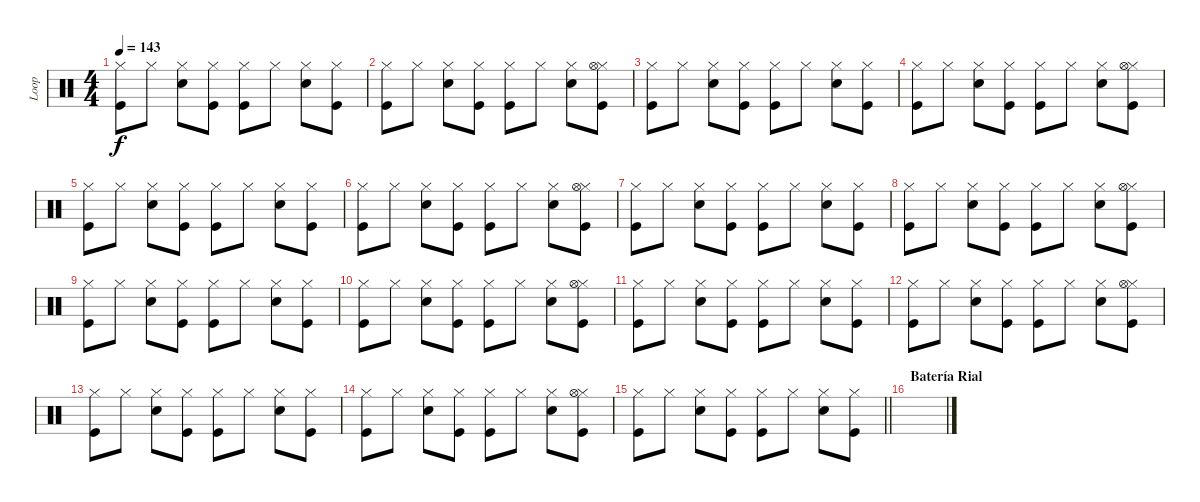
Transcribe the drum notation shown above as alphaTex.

\track ("Loop" "Loop") {instrument percussion}
\staff {score}
\articulation defaults
\ts (4 4)
\tempo 143
\clef neutral
\ks c
("Kick (hit)" "Hi-Hat (closed)").8{dy f} "Hi-Hat (closed)".8 ("Snare (hit) 2" "Hi-Hat (closed)").8 ("Hi-Hat (closed)" "Kick (hit)").8 ("Hi-Hat (closed)" "Kick (hit)").8 "Hi-Hat (closed)".8 ("Hi-Hat (closed)" "Snare (hit) 2").8 ("Hi-Hat (closed)" "Kick (hit)").8 |
("Kick (hit)" "Hi-Hat (closed)").8 "Hi-Hat (closed)".8 ("Snare (hit) 2" "Hi-Hat (closed)").8 ("Hi-Hat (closed)" "Kick (hit)").8 ("Hi-Hat (closed)" "Kick (hit)").8 "Hi-Hat (closed)".8 ("Hi-Hat (closed)" "Snare (hit) 2").8 ("Hi-Hat (closed)" "Kick (hit)" "Hi-Hat (open)").8 |
("Kick (hit)" "Hi-Hat (closed)").8 "Hi-Hat (closed)".8 ("Snare (hit) 2" "Hi-Hat (closed)").8 ("Hi-Hat (closed)" "Kick (hit)").8 ("Hi-Hat (closed)" "Kick (hit)").8 "Hi-Hat (closed)".8 ("Hi-Hat (closed)" "Snare (hit) 2").8 ("Hi-Hat (closed)" "Kick (hit)").8 |
("Kick (hit)" "Hi-Hat (closed)").8 "Hi-Hat (closed)".8 ("Snare (hit) 2" "Hi-Hat (closed)").8 ("Hi-Hat (closed)" "Kick (hit)").8 ("Hi-Hat (closed)" "Kick (hit)").8 "Hi-Hat (closed)".8 ("Hi-Hat (closed)" "Snare (hit) 2").8 ("Hi-Hat (closed)" "Kick (hit)" "Hi-Hat (open)").8 |
("Kick (hit)" "Hi-Hat (closed)").8 "Hi-Hat (closed)".8 ("Snare (hit) 2" "Hi-Hat (closed)").8 ("Hi-Hat (closed)" "Kick (hit)").8 ("Hi-Hat (closed)" "Kick (hit)").8 "Hi-Hat (closed)".8 ("Hi-Hat (closed)" "Snare (hit) 2").8 ("Hi-Hat (closed)" "Kick (hit)").8 |
("Kick (hit)" "Hi-Hat (closed)").8 "Hi-Hat (closed)".8 ("Snare (hit) 2" "Hi-Hat (closed)").8 ("Hi-Hat (closed)" "Kick (hit)").8 ("Hi-Hat (closed)" "Kick (hit)").8 "Hi-Hat (closed)".8 ("Hi-Hat (closed)" "Snare (hit) 2").8 ("Hi-Hat (closed)" "Kick (hit)" "Hi-Hat (open)").8 |
("Kick (hit)" "Hi-Hat (closed)").8 "Hi-Hat (closed)".8 ("Snare (hit) 2" "Hi-Hat (closed)").8 ("Hi-Hat (closed)" "Kick (hit)").8 ("Hi-Hat (closed)" "Kick (hit)").8 "Hi-Hat (closed)".8 ("Hi-Hat (closed)" "Snare (hit) 2").8 ("Hi-Hat (closed)" "Kick (hit)").8 |
("Kick (hit)" "Hi-Hat (closed)").8 "Hi-Hat (closed)".8 ("Snare (hit) 2" "Hi-Hat (closed)").8 ("Hi-Hat (closed)" "Kick (hit)").8 ("Hi-Hat (closed)" "Kick (hit)").8 "Hi-Hat (closed)".8 ("Hi-Hat (closed)" "Snare (hit) 2").8 ("Hi-Hat (closed)" "Kick (hit)" "Hi-Hat (open)").8 |
("Kick (hit)" "Hi-Hat (closed)").8 "Hi-Hat (closed)".8 ("Snare (hit) 2" "Hi-Hat (closed)").8 ("Hi-Hat (closed)" "Kick (hit)").8 ("Hi-Hat (closed)" "Kick (hit)").8 "Hi-Hat (closed)".8 ("Hi-Hat (closed)" "Snare (hit) 2").8 ("Hi-Hat (closed)" "Kick (hit)").8 |
("Kick (hit)" "Hi-Hat (closed)").8 "Hi-Hat (closed)".8 ("Snare (hit) 2" "Hi-Hat (closed)").8 ("Hi-Hat (closed)" "Kick (hit)").8 ("Hi-Hat (closed)" "Kick (hit)").8 "Hi-Hat (closed)".8 ("Hi-Hat (closed)" "Snare (hit) 2").8 ("Hi-Hat (closed)" "Kick (hit)" "Hi-Hat (open)").8 |
("Kick (hit)" "Hi-Hat (closed)").8 "Hi-Hat (closed)".8 ("Snare (hit) 2" "Hi-Hat (closed)").8 ("Hi-Hat (closed)" "Kick (hit)").8 ("Hi-Hat (closed)" "Kick (hit)").8 "Hi-Hat (closed)".8 ("Hi-Hat (closed)" "Snare (hit) 2").8 ("Hi-Hat (closed)" "Kick (hit)").8 |
("Kick (hit)" "Hi-Hat (closed)").8 "Hi-Hat (closed)".8 ("Snare (hit) 2" "Hi-Hat (closed)").8 ("Hi-Hat (closed)" "Kick (hit)").8 ("Hi-Hat (closed)" "Kick (hit)").8 "Hi-Hat (closed)".8 ("Hi-Hat (closed)" "Snare (hit) 2").8 ("Hi-Hat (closed)" "Kick (hit)" "Hi-Hat (open)").8 |
("Kick (hit)" "Hi-Hat (closed)").8 "Hi-Hat (closed)".8 ("Snare (hit) 2" "Hi-Hat (closed)").8 ("Hi-Hat (closed)" "Kick (hit)").8 ("Hi-Hat (closed)" "Kick (hit)").8 "Hi-Hat (closed)".8 ("Hi-Hat (closed)" "Snare (hit) 2").8 ("Hi-Hat (closed)" "Kick (hit)").8 |
("Kick (hit)" "Hi-Hat (closed)").8 "Hi-Hat (closed)".8 ("Snare (hit) 2" "Hi-Hat (closed)").8 ("Hi-Hat (closed)" "Kick (hit)").8 ("Hi-Hat (closed)" "Kick (hit)").8 "Hi-Hat (closed)".8 ("Hi-Hat (closed)" "Snare (hit) 2").8 ("Hi-Hat (closed)" "Kick (hit)" "Hi-Hat (open)").8 |
\barLineRight lightlight
("Kick (hit)" "Hi-Hat (closed)").8 "Hi-Hat (closed)".8 ("Snare (hit) 2" "Hi-Hat (closed)").8 ("Hi-Hat (closed)" "Kick (hit)").8 ("Hi-Hat (closed)" "Kick (hit)").8 "Hi-Hat (closed)".8 ("Hi-Hat (closed)" "Snare (hit) 2").8 ("Hi-Hat (closed)" "Kick (hit)").8 |
\section ("" "Batería Rial")
